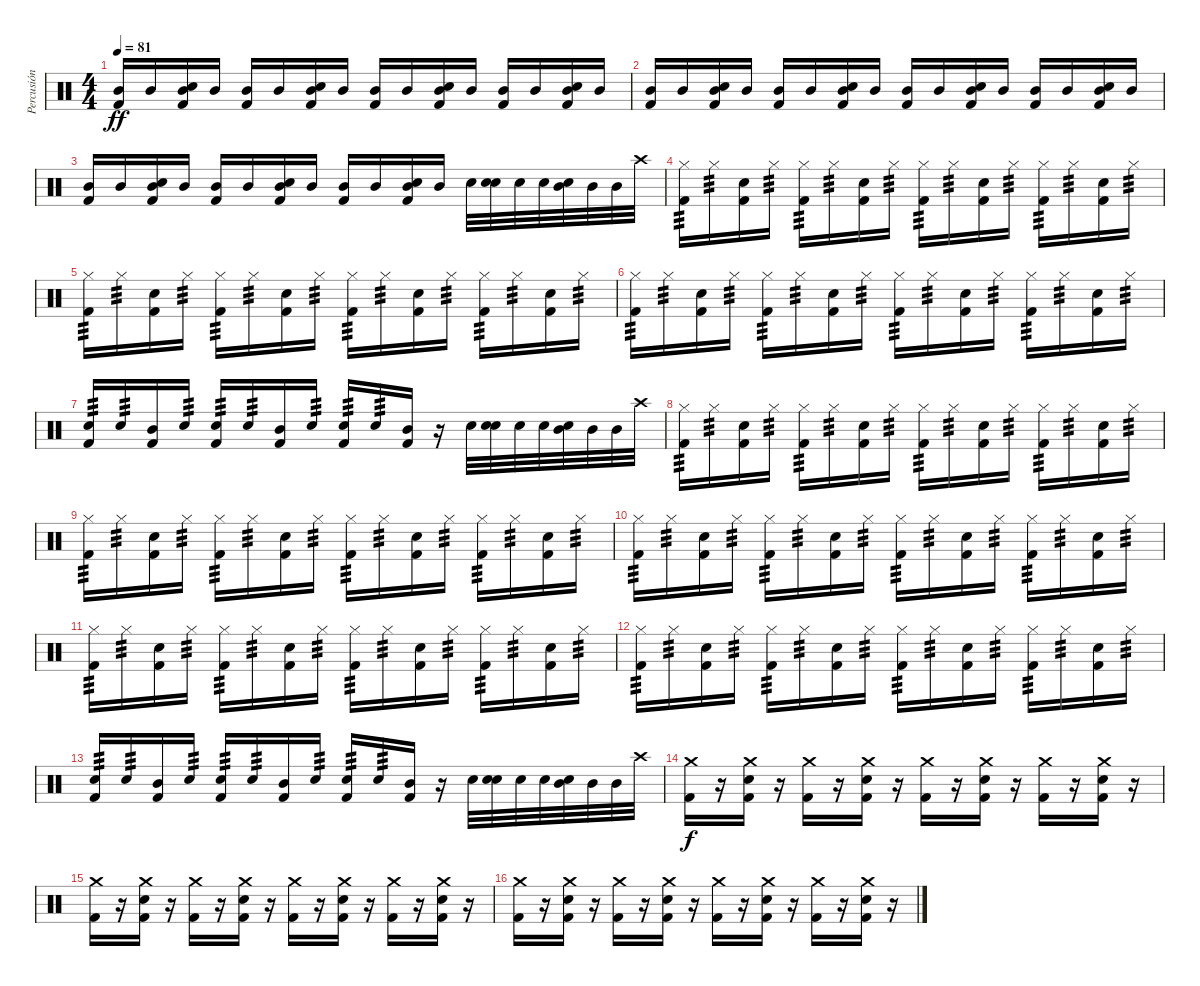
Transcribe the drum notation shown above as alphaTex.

\track ("Percusión" "Percusión") {instrument percussion}
\staff {score}
\articulation defaults
\ts (4 4)
\tempo 81
\clef neutral
\ks c
("Kick (hit) 2" "Mid Tom (hit)").16{dy ff} "Mid Tom (hit)".16 ("Kick (hit) 2" "Electric Snare (hit)" "Mid Tom (hit)").16 "Mid Tom (hit)".16 ("Kick (hit) 2" "Mid Tom (hit)").16 "Mid Tom (hit)".16 ("Kick (hit) 2" "Electric Snare (hit)" "Mid Tom (hit)").16 "Mid Tom (hit)".16 ("Kick (hit) 2" "Mid Tom (hit)").16 "Mid Tom (hit)".16 ("Kick (hit) 2" "Electric Snare (hit)" "Mid Tom (hit)").16 "Mid Tom (hit)".16 ("Kick (hit) 2" "Mid Tom (hit)").16 "Mid Tom (hit)".16 ("Kick (hit) 2" "Electric Snare (hit)" "Mid Tom (hit)").16 "Mid Tom (hit)".16 |
("Kick (hit) 2" "Mid Tom (hit)").16 "Mid Tom (hit)".16 ("Kick (hit) 2" "Electric Snare (hit)" "Mid Tom (hit)").16 "Mid Tom (hit)".16 ("Kick (hit) 2" "Mid Tom (hit)").16 "Mid Tom (hit)".16 ("Kick (hit) 2" "Electric Snare (hit)" "Mid Tom (hit)").16 "Mid Tom (hit)".16 ("Kick (hit) 2" "Mid Tom (hit)").16 "Mid Tom (hit)".16 ("Kick (hit) 2" "Electric Snare (hit)" "Mid Tom (hit)").16 "Mid Tom (hit)".16 ("Kick (hit) 2" "Mid Tom (hit)").16 "Mid Tom (hit)".16 ("Kick (hit) 2" "Electric Snare (hit)" "Mid Tom (hit)").16 "Mid Tom (hit)".16 |
("Kick (hit) 2" "Mid Tom (hit)").16 "Mid Tom (hit)".16 ("Kick (hit) 2" "Electric Snare (hit)" "Mid Tom (hit)").16 "Mid Tom (hit)".16 ("Kick (hit) 2" "Mid Tom (hit)").16 "Mid Tom (hit)".16 ("Kick (hit) 2" "Electric Snare (hit)" "Mid Tom (hit)").16 "Mid Tom (hit)".16 ("Kick (hit) 2" "Mid Tom (hit)").16 "Mid Tom (hit)".16 ("Kick (hit) 2" "Electric Snare (hit)" "Mid Tom (hit)").16 "Mid Tom (hit)".16 "Electric Snare (hit)".32 ("Snare (hit) 2" "Electric Snare (hit)").32 "Electric Snare (hit)".32 "Electric Snare (hit)".32 ("Snare (hit) 2" "Mid Tom (hit)").32 "Mid Tom (hit)".32 "Mid Tom (hit)".32 "Crash high (hit)".32 |
("Kick (hit) 2" "Hi-Hat (closed)").16{tp 3} "Hi-Hat (closed)".16{tp 3} ("Kick (hit) 2" "Electric Snare (hit)").16 "Hi-Hat (closed)".16{tp 3} ("Kick (hit) 2" "Hi-Hat (closed)").16{tp 3} "Hi-Hat (closed)".16{tp 3} ("Kick (hit) 2" "Electric Snare (hit)").16 "Hi-Hat (closed)".16{tp 3} ("Kick (hit) 2" "Hi-Hat (closed)").16{tp 3} "Hi-Hat (closed)".16{tp 3} ("Kick (hit) 2" "Electric Snare (hit)").16 "Hi-Hat (closed)".16{tp 3} ("Kick (hit) 2" "Hi-Hat (closed)").16{tp 3} "Hi-Hat (closed)".16{tp 3} ("Kick (hit) 2" "Electric Snare (hit)").16 "Hi-Hat (closed)".16{tp 3} |
("Kick (hit) 2" "Hi-Hat (closed)").16{tp 3} "Hi-Hat (closed)".16{tp 3} ("Kick (hit) 2" "Electric Snare (hit)").16 "Hi-Hat (closed)".16{tp 3} ("Kick (hit) 2" "Hi-Hat (closed)").16{tp 3} "Hi-Hat (closed)".16{tp 3} ("Kick (hit) 2" "Electric Snare (hit)").16 "Hi-Hat (closed)".16{tp 3} ("Kick (hit) 2" "Hi-Hat (closed)").16{tp 3} "Hi-Hat (closed)".16{tp 3} ("Kick (hit) 2" "Electric Snare (hit)").16 "Hi-Hat (closed)".16{tp 3} ("Kick (hit) 2" "Hi-Hat (closed)").16{tp 3} "Hi-Hat (closed)".16{tp 3} ("Kick (hit) 2" "Electric Snare (hit)").16 "Hi-Hat (closed)".16{tp 3} |
("Kick (hit) 2" "Hi-Hat (closed)").16{tp 3} "Hi-Hat (closed)".16{tp 3} ("Kick (hit) 2" "Electric Snare (hit)").16 "Hi-Hat (closed)".16{tp 3} ("Kick (hit) 2" "Hi-Hat (closed)").16{tp 3} "Hi-Hat (closed)".16{tp 3} ("Kick (hit) 2" "Electric Snare (hit)").16 "Hi-Hat (closed)".16{tp 3} ("Kick (hit) 2" "Hi-Hat (closed)").16{tp 3} "Hi-Hat (closed)".16{tp 3} ("Kick (hit) 2" "Electric Snare (hit)").16 "Hi-Hat (closed)".16{tp 3} ("Kick (hit) 2" "Hi-Hat (closed)").16{tp 3} "Hi-Hat (closed)".16{tp 3} ("Kick (hit) 2" "Electric Snare (hit)").16 "Hi-Hat (closed)".16{tp 3} |
("Kick (hit) 2" "Electric Snare (hit)").16{tp 3} "Electric Snare (hit)".16{tp 3} ("Kick (hit) 2" "Mid Tom (hit)").16 "Electric Snare (hit)".16{tp 3} ("Kick (hit) 2" "Electric Snare (hit)").16{tp 3} "Electric Snare (hit)".16{tp 3} ("Kick (hit) 2" "Mid Tom (hit)").16 "Electric Snare (hit)".16{tp 3} ("Kick (hit) 2" "Electric Snare (hit)").16{tp 3} "Electric Snare (hit)".16{tp 3} ("Kick (hit) 2" "Mid Tom (hit)").16 r.16 "Electric Snare (hit)".32 ("Snare (hit) 2" "Electric Snare (hit)").32 "Electric Snare (hit)".32 "Electric Snare (hit)".32 ("Snare (hit) 2" "Mid Tom (hit)").32 "Mid Tom (hit)".32 "Mid Tom (hit)".32 "Crash high (hit)".32 |
("Kick (hit) 2" "Hi-Hat (closed)").16{tp 3} "Hi-Hat (closed)".16{tp 3} ("Kick (hit) 2" "Electric Snare (hit)").16 "Hi-Hat (closed)".16{tp 3} ("Kick (hit) 2" "Hi-Hat (closed)").16{tp 3} "Hi-Hat (closed)".16{tp 3} ("Kick (hit) 2" "Electric Snare (hit)").16 "Hi-Hat (closed)".16{tp 3} ("Kick (hit) 2" "Hi-Hat (closed)").16{tp 3} "Hi-Hat (closed)".16{tp 3} ("Kick (hit) 2" "Electric Snare (hit)").16 "Hi-Hat (closed)".16{tp 3} ("Kick (hit) 2" "Hi-Hat (closed)").16{tp 3} "Hi-Hat (closed)".16{tp 3} ("Kick (hit) 2" "Electric Snare (hit)").16 "Hi-Hat (closed)".16{tp 3} |
("Kick (hit) 2" "Hi-Hat (closed)").16{tp 3} "Hi-Hat (closed)".16{tp 3} ("Kick (hit) 2" "Electric Snare (hit)").16 "Hi-Hat (closed)".16{tp 3} ("Kick (hit) 2" "Hi-Hat (closed)").16{tp 3} "Hi-Hat (closed)".16{tp 3} ("Kick (hit) 2" "Electric Snare (hit)").16 "Hi-Hat (closed)".16{tp 3} ("Kick (hit) 2" "Hi-Hat (closed)").16{tp 3} "Hi-Hat (closed)".16{tp 3} ("Kick (hit) 2" "Electric Snare (hit)").16 "Hi-Hat (closed)".16{tp 3} ("Kick (hit) 2" "Hi-Hat (closed)").16{tp 3} "Hi-Hat (closed)".16{tp 3} ("Kick (hit) 2" "Electric Snare (hit)").16 "Hi-Hat (closed)".16{tp 3} |
("Kick (hit) 2" "Hi-Hat (closed)").16{tp 3} "Hi-Hat (closed)".16{tp 3} ("Kick (hit) 2" "Electric Snare (hit)").16 "Hi-Hat (closed)".16{tp 3} ("Kick (hit) 2" "Hi-Hat (closed)").16{tp 3} "Hi-Hat (closed)".16{tp 3} ("Kick (hit) 2" "Electric Snare (hit)").16 "Hi-Hat (closed)".16{tp 3} ("Kick (hit) 2" "Hi-Hat (closed)").16{tp 3} "Hi-Hat (closed)".16{tp 3} ("Kick (hit) 2" "Electric Snare (hit)").16 "Hi-Hat (closed)".16{tp 3} ("Kick (hit) 2" "Hi-Hat (closed)").16{tp 3} "Hi-Hat (closed)".16{tp 3} ("Kick (hit) 2" "Electric Snare (hit)").16 "Hi-Hat (closed)".16{tp 3} |
("Kick (hit) 2" "Hi-Hat (closed)").16{tp 3} "Hi-Hat (closed)".16{tp 3} ("Kick (hit) 2" "Electric Snare (hit)").16 "Hi-Hat (closed)".16{tp 3} ("Kick (hit) 2" "Hi-Hat (closed)").16{tp 3} "Hi-Hat (closed)".16{tp 3} ("Kick (hit) 2" "Electric Snare (hit)").16 "Hi-Hat (closed)".16{tp 3} ("Kick (hit) 2" "Hi-Hat (closed)").16{tp 3} "Hi-Hat (closed)".16{tp 3} ("Kick (hit) 2" "Electric Snare (hit)").16 "Hi-Hat (closed)".16{tp 3} ("Kick (hit) 2" "Hi-Hat (closed)").16{tp 3} "Hi-Hat (closed)".16{tp 3} ("Kick (hit) 2" "Electric Snare (hit)").16 "Hi-Hat (closed)".16{tp 3} |
("Kick (hit) 2" "Hi-Hat (closed)").16{tp 3} "Hi-Hat (closed)".16{tp 3} ("Kick (hit) 2" "Electric Snare (hit)").16 "Hi-Hat (closed)".16{tp 3} ("Kick (hit) 2" "Hi-Hat (closed)").16{tp 3} "Hi-Hat (closed)".16{tp 3} ("Kick (hit) 2" "Electric Snare (hit)").16 "Hi-Hat (closed)".16{tp 3} ("Kick (hit) 2" "Hi-Hat (closed)").16{tp 3} "Hi-Hat (closed)".16{tp 3} ("Kick (hit) 2" "Electric Snare (hit)").16 "Hi-Hat (closed)".16{tp 3} ("Kick (hit) 2" "Hi-Hat (closed)").16{tp 3} "Hi-Hat (closed)".16{tp 3} ("Kick (hit) 2" "Electric Snare (hit)").16 "Hi-Hat (closed)".16{tp 3} |
("Kick (hit) 2" "Electric Snare (hit)").16{tp 3} "Electric Snare (hit)".16{tp 3} ("Kick (hit) 2" "Mid Tom (hit)").16 "Electric Snare (hit)".16{tp 3} ("Kick (hit) 2" "Electric Snare (hit)").16{tp 3} "Electric Snare (hit)".16{tp 3} ("Kick (hit) 2" "Mid Tom (hit)").16 "Electric Snare (hit)".16{tp 3} ("Kick (hit) 2" "Electric Snare (hit)").16{tp 3} "Electric Snare (hit)".16{tp 3} ("Kick (hit) 2" "Mid Tom (hit)").16 r.16 "Electric Snare (hit)".32 ("Snare (hit) 2" "Electric Snare (hit)").32 "Electric Snare (hit)".32 "Electric Snare (hit)".32 ("Snare (hit) 2" "Mid Tom (hit)").32 "Mid Tom (hit)".32 "Mid Tom (hit)".32 "Crash high (hit)".32 |
("Kick (hit) 2" "Crash medium (hit)").16{dy f} r.16 ("Kick (hit) 2" "Electric Snare (hit)" "Crash medium (hit)").16 r.16 ("Kick (hit) 2" "Crash medium (hit)").16 r.16 ("Kick (hit) 2" "Electric Snare (hit)" "Crash medium (hit)").16 r.16 ("Kick (hit) 2" "Crash medium (hit)").16 r.16 ("Kick (hit) 2" "Electric Snare (hit)" "Crash medium (hit)").16 r.16 ("Kick (hit) 2" "Crash medium (hit)").16 r.16 ("Kick (hit) 2" "Electric Snare (hit)" "Crash medium (hit)").16 r.16 |
("Kick (hit) 2" "Crash medium (hit)").16 r.16 ("Kick (hit) 2" "Electric Snare (hit)" "Crash medium (hit)").16 r.16 ("Kick (hit) 2" "Crash medium (hit)").16 r.16 ("Kick (hit) 2" "Electric Snare (hit)" "Crash medium (hit)").16 r.16 ("Kick (hit) 2" "Crash medium (hit)").16 r.16 ("Kick (hit) 2" "Electric Snare (hit)" "Crash medium (hit)").16 r.16 ("Kick (hit) 2" "Crash medium (hit)").16 r.16 ("Kick (hit) 2" "Electric Snare (hit)" "Crash medium (hit)").16 r.16 |
("Kick (hit) 2" "Crash medium (hit)").16 r.16 ("Kick (hit) 2" "Electric Snare (hit)" "Crash medium (hit)").16 r.16 ("Kick (hit) 2" "Crash medium (hit)").16 r.16 ("Kick (hit) 2" "Electric Snare (hit)" "Crash medium (hit)").16 r.16 ("Kick (hit) 2" "Crash medium (hit)").16 r.16 ("Kick (hit) 2" "Electric Snare (hit)" "Crash medium (hit)").16 r.16 ("Kick (hit) 2" "Crash medium (hit)").16 r.16 ("Kick (hit) 2" "Electric Snare (hit)" "Crash medium (hit)").16 r.16
